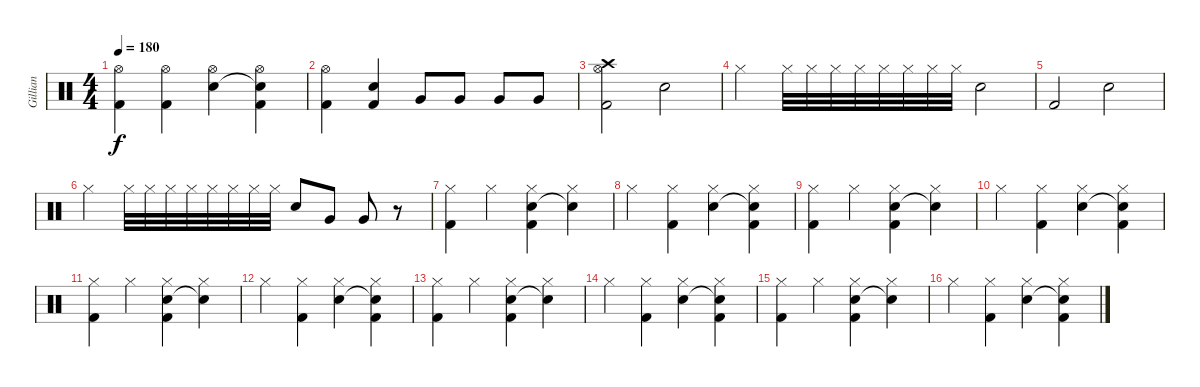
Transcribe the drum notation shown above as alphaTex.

\track ("Gillian" "Gillian") {instrument percussion}
\staff {score}
\articulation defaults
\ts (4 4)
\tempo 180
\clef neutral
\ks c
("Hi-Hat (open)" "Kick (hit) 2").4{dy f} ("Hi-Hat (open)" "Kick (hit) 2").4 ("Hi-Hat (open)" "Electric Snare (hit)").4 ("Hi-Hat (open)" "Snare (hit)"{t} "Kick (hit) 2").4 |
("Hi-Hat (open)" "Kick (hit) 2").4 ("Electric Snare (hit)" "Kick (hit) 2").4 "Very Low Tom (hit)".8 "Very Low Tom (hit)".8 "Very Low Tom (hit)".8 "Very Low Tom (hit)".8 |
("Crash high (hit)" "Hi-Hat (open)" "Kick (hit) 2").2 "Electric Snare (hit)".2 |
"Hi-Hat (closed)".4 "Hi-Hat (closed)".32 "Hi-Hat (closed)".32 "Hi-Hat (closed)".32 "Hi-Hat (closed)".32 "Hi-Hat (closed)".32 "Hi-Hat (closed)".32 "Hi-Hat (closed)".32 "Hi-Hat (closed)".32 "Electric Snare (hit)".2 |
"Kick (hit) 2".2 "Electric Snare (hit)".2 |
"Hi-Hat (closed)".4 "Hi-Hat (closed)".32 "Hi-Hat (closed)".32 "Hi-Hat (closed)".32 "Hi-Hat (closed)".32 "Hi-Hat (closed)".32 "Hi-Hat (closed)".32 "Hi-Hat (closed)".32 "Hi-Hat (closed)".32 "Electric Snare (hit)".8 "Very Low Tom (hit)".8 "Very Low Tom (hit)".8 r.8 |
("Hi-Hat (closed)" "Kick (hit) 2").4 "Hi-Hat (closed)".4 ("Electric Snare (hit)" "Hi-Hat (closed)" "Kick (hit) 2").4 ("Snare (hit)"{t} "Hi-Hat (closed)").4 |
"Hi-Hat (closed)".4 ("Hi-Hat (closed)" "Kick (hit) 2").4 ("Electric Snare (hit)" "Hi-Hat (closed)").4 ("Snare (hit)"{t} "Hi-Hat (closed)" "Kick (hit) 2").4 |
("Hi-Hat (closed)" "Kick (hit) 2").4 "Hi-Hat (closed)".4 ("Electric Snare (hit)" "Hi-Hat (closed)" "Kick (hit) 2").4 ("Snare (hit)"{t} "Hi-Hat (closed)").4 |
"Hi-Hat (closed)".4 ("Hi-Hat (closed)" "Kick (hit) 2").4 ("Electric Snare (hit)" "Hi-Hat (closed)").4 ("Snare (hit)"{t} "Hi-Hat (closed)" "Kick (hit) 2").4 |
("Hi-Hat (closed)" "Kick (hit) 2").4 "Hi-Hat (closed)".4 ("Electric Snare (hit)" "Hi-Hat (closed)" "Kick (hit) 2").4 ("Snare (hit)"{t} "Hi-Hat (closed)").4 |
"Hi-Hat (closed)".4 ("Hi-Hat (closed)" "Kick (hit) 2").4 ("Electric Snare (hit)" "Hi-Hat (closed)").4 ("Snare (hit)"{t} "Hi-Hat (closed)" "Kick (hit) 2").4 |
("Hi-Hat (closed)" "Kick (hit) 2").4 "Hi-Hat (closed)".4 ("Electric Snare (hit)" "Hi-Hat (closed)" "Kick (hit) 2").4 ("Snare (hit)"{t} "Hi-Hat (closed)").4 |
"Hi-Hat (closed)".4 ("Hi-Hat (closed)" "Kick (hit) 2").4 ("Electric Snare (hit)" "Hi-Hat (closed)").4 ("Snare (hit)"{t} "Hi-Hat (closed)" "Kick (hit) 2").4 |
("Hi-Hat (closed)" "Kick (hit) 2").4 "Hi-Hat (closed)".4 ("Electric Snare (hit)" "Hi-Hat (closed)" "Kick (hit) 2").4 ("Snare (hit)"{t} "Hi-Hat (closed)").4 |
"Hi-Hat (closed)".4 ("Hi-Hat (closed)" "Kick (hit) 2").4 ("Electric Snare (hit)" "Hi-Hat (closed)").4 ("Snare (hit)"{t} "Hi-Hat (closed)" "Kick (hit) 2").4
